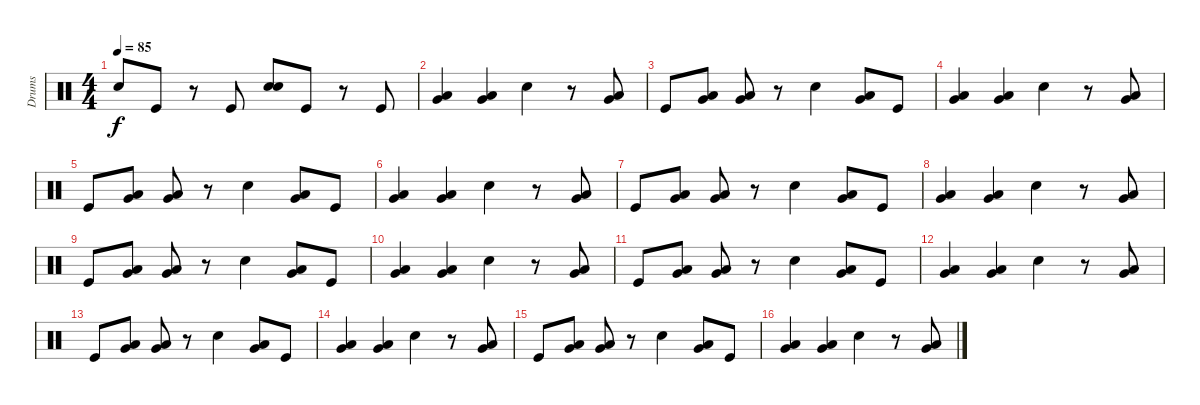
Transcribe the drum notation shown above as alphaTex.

\track ("Drums" "Drums") {instrument percussion}
\staff {score}
\articulation defaults
\ts (4 4)
\tempo 85
\clef neutral
\ks c "Electric Snare (hit)".8{dy f} "Kick (hit)".8
r.8 "Kick (hit)".8 ("Electric Snare (hit)" "Electric Snare (hit)").8{bu 60} "Kick (hit)".8 r.8 "Kick (hit)".8 |
("Very Low Tom (hit)" "Low Floor Tom (hit)").4 ("Very Low Tom (hit)" "Low Floor Tom (hit)").4 "Electric Snare (hit)".4 r.8 ("Very Low Tom (hit)" "Low Floor Tom (hit)").8 |
"Kick (hit)".8 ("Very Low Tom (hit)" "Low Floor Tom (hit)").8 ("Very Low Tom (hit)" "Low Floor Tom (hit)").8 r.8 "Electric Snare (hit)".4 ("Very Low Tom (hit)" "Low Floor Tom (hit)").8 "Kick (hit)".8 |
("Very Low Tom (hit)" "Low Floor Tom (hit)").4 ("Very Low Tom (hit)" "Low Floor Tom (hit)").4 "Electric Snare (hit)".4 r.8 ("Very Low Tom (hit)" "Low Floor Tom (hit)").8 |
"Kick (hit)".8 ("Very Low Tom (hit)" "Low Floor Tom (hit)").8 ("Very Low Tom (hit)" "Low Floor Tom (hit)").8 r.8 "Electric Snare (hit)".4 ("Very Low Tom (hit)" "Low Floor Tom (hit)").8 "Kick (hit)".8 |
("Very Low Tom (hit)" "Low Floor Tom (hit)").4 ("Very Low Tom (hit)" "Low Floor Tom (hit)").4 "Electric Snare (hit)".4 r.8 ("Very Low Tom (hit)" "Low Floor Tom (hit)").8 |
"Kick (hit)".8 ("Very Low Tom (hit)" "Low Floor Tom (hit)").8 ("Very Low Tom (hit)" "Low Floor Tom (hit)").8 r.8 "Electric Snare (hit)".4 ("Very Low Tom (hit)" "Low Floor Tom (hit)").8 "Kick (hit)".8 |
("Very Low Tom (hit)" "Low Floor Tom (hit)").4 ("Very Low Tom (hit)" "Low Floor Tom (hit)").4 "Electric Snare (hit)".4 r.8 ("Very Low Tom (hit)" "Low Floor Tom (hit)").8 |
"Kick (hit)".8 ("Very Low Tom (hit)" "Low Floor Tom (hit)").8 ("Very Low Tom (hit)" "Low Floor Tom (hit)").8 r.8 "Electric Snare (hit)".4 ("Very Low Tom (hit)" "Low Floor Tom (hit)").8 "Kick (hit)".8 |
("Very Low Tom (hit)" "Low Floor Tom (hit)").4 ("Very Low Tom (hit)" "Low Floor Tom (hit)").4 "Electric Snare (hit)".4 r.8 ("Very Low Tom (hit)" "Low Floor Tom (hit)").8 |
"Kick (hit)".8 ("Very Low Tom (hit)" "Low Floor Tom (hit)").8 ("Very Low Tom (hit)" "Low Floor Tom (hit)").8 r.8 "Electric Snare (hit)".4 ("Very Low Tom (hit)" "Low Floor Tom (hit)").8 "Kick (hit)".8 |
("Very Low Tom (hit)" "Low Floor Tom (hit)").4 ("Very Low Tom (hit)" "Low Floor Tom (hit)").4 "Electric Snare (hit)".4 r.8 ("Very Low Tom (hit)" "Low Floor Tom (hit)").8 |
"Kick (hit)".8 ("Very Low Tom (hit)" "Low Floor Tom (hit)").8 ("Very Low Tom (hit)" "Low Floor Tom (hit)").8 r.8 "Electric Snare (hit)".4 ("Very Low Tom (hit)" "Low Floor Tom (hit)").8 "Kick (hit)".8 |
("Very Low Tom (hit)" "Low Floor Tom (hit)").4 ("Very Low Tom (hit)" "Low Floor Tom (hit)").4 "Electric Snare (hit)".4 r.8 ("Very Low Tom (hit)" "Low Floor Tom (hit)").8 |
"Kick (hit)".8 ("Very Low Tom (hit)" "Low Floor Tom (hit)").8 ("Very Low Tom (hit)" "Low Floor Tom (hit)").8 r.8 "Electric Snare (hit)".4 ("Very Low Tom (hit)" "Low Floor Tom (hit)").8 "Kick (hit)".8 |
("Very Low Tom (hit)" "Low Floor Tom (hit)").4 ("Very Low Tom (hit)" "Low Floor Tom (hit)").4 "Electric Snare (hit)".4 r.8 ("Very Low Tom (hit)" "Low Floor Tom (hit)").8
